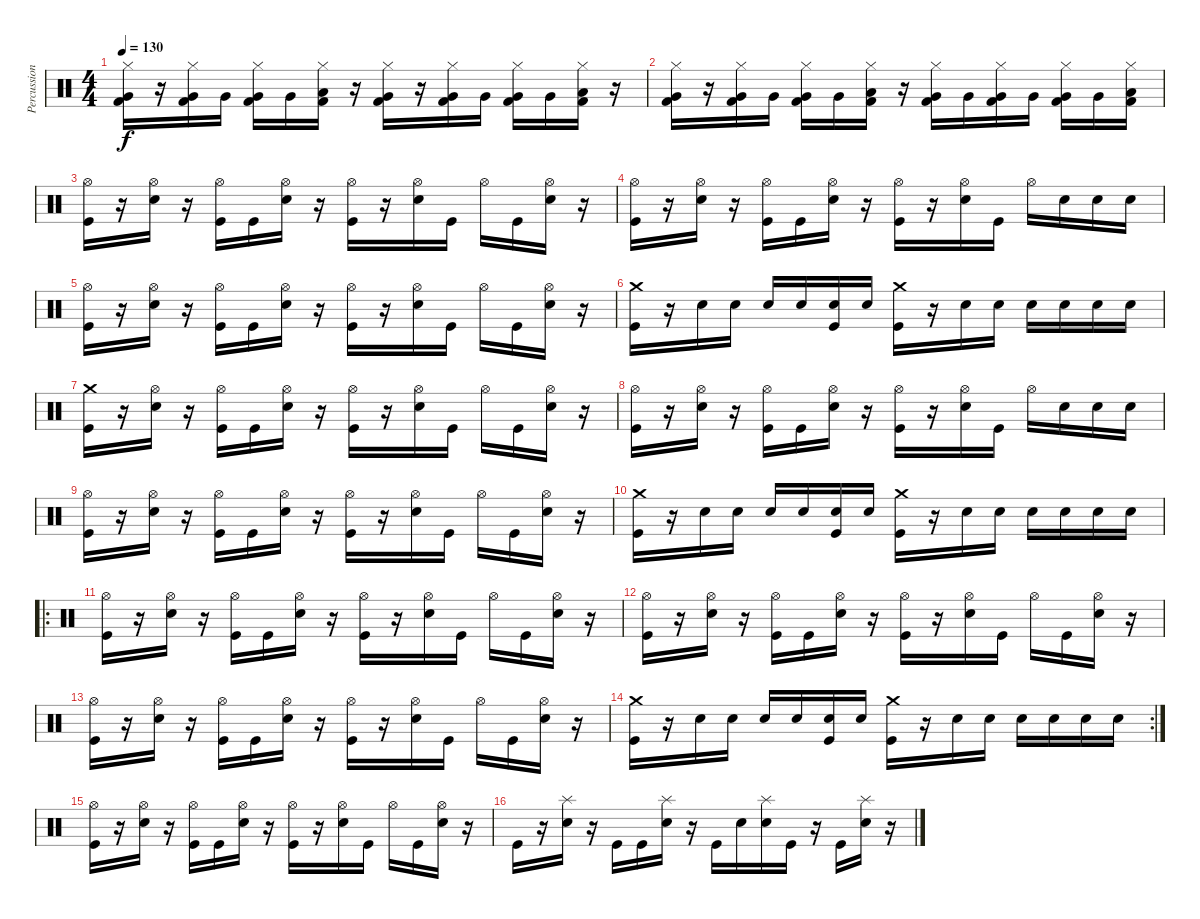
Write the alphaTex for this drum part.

\track ("Percussion" "Percussion") {instrument percussion}
\staff {score}
\articulation defaults
\ts (4 4)
\tempo 130
\clef neutral
\ks c
("Hi-Hat (closed)" "Very Low Tom (hit)" "Kick (hit) 2").16{dy f} r.16 ("Hi-Hat (closed)" "Very Low Tom (hit)" "Kick (hit) 2").16 "Very Low Tom (hit)".16 ("Hi-Hat (closed)" "Very Low Tom (hit)" "Kick (hit) 2").16 "Very Low Tom (hit)".16 ("Hi-Hat (closed)" "Low Floor Tom (hit)" "Kick (hit) 2").16 r.16 ("Hi-Hat (closed)" "Very Low Tom (hit)" "Kick (hit) 2").16 r.16 ("Hi-Hat (closed)" "Very Low Tom (hit)" "Kick (hit) 2").16 "Very Low Tom (hit)".16 ("Hi-Hat (closed)" "Very Low Tom (hit)" "Kick (hit) 2").16 "Very Low Tom (hit)".16 ("Hi-Hat (closed)" "Low Floor Tom (hit)" "Kick (hit) 2").16 r.16 |
("Hi-Hat (closed)" "Very Low Tom (hit)" "Kick (hit) 2").16 r.16 ("Hi-Hat (closed)" "Very Low Tom (hit)" "Kick (hit) 2").16 "Very Low Tom (hit)".16 ("Hi-Hat (closed)" "Very Low Tom (hit)" "Kick (hit) 2").16 "Very Low Tom (hit)".16 ("Hi-Hat (closed)" "Low Floor Tom (hit)" "Kick (hit) 2").16 r.16 ("Hi-Hat (closed)" "Very Low Tom (hit)" "Kick (hit) 2").16 "Very Low Tom (hit)".16 ("Hi-Hat (closed)" "Very Low Tom (hit)" "Kick (hit) 2").16 "Very Low Tom (hit)".16 ("Hi-Hat (closed)" "Very Low Tom (hit)" "Kick (hit) 2").16 "Very Low Tom (hit)".16 ("Hi-Hat (closed)" "Low Floor Tom (hit)" "Kick (hit) 2").16 |
("Hi-Hat (open)" "Kick (hit)").16 r.16 ("Hi-Hat (open)" "Electric Snare (hit)").16 r.16 ("Hi-Hat (open)" "Kick (hit)").16 "Kick (hit)".16 ("Hi-Hat (open)" "Electric Snare (hit)").16 r.16 ("Hi-Hat (open)" "Kick (hit)").16 r.16 ("Hi-Hat (open)" "Electric Snare (hit)").16 "Kick (hit)".16 "Hi-Hat (open)".16 "Kick (hit)".16 ("Hi-Hat (open)" "Electric Snare (hit)").16 r.16 |
("Hi-Hat (open)" "Kick (hit)").16 r.16 ("Hi-Hat (open)" "Electric Snare (hit)").16 r.16 ("Hi-Hat (open)" "Kick (hit)").16 "Kick (hit)".16 ("Hi-Hat (open)" "Electric Snare (hit)").16 r.16 ("Hi-Hat (open)" "Kick (hit)").16 r.16 ("Hi-Hat (open)" "Electric Snare (hit)").16 "Kick (hit)".16 "Hi-Hat (open)".16 "Electric Snare (hit)".16 "Electric Snare (hit)".16 "Electric Snare (hit)".16 |
("Hi-Hat (open)" "Kick (hit)").16 r.16 ("Hi-Hat (open)" "Electric Snare (hit)").16 r.16 ("Hi-Hat (open)" "Kick (hit)").16 "Kick (hit)".16 ("Hi-Hat (open)" "Electric Snare (hit)").16 r.16 ("Hi-Hat (open)" "Kick (hit)").16 r.16 ("Hi-Hat (open)" "Electric Snare (hit)").16 "Kick (hit)".16 "Hi-Hat (open)".16 "Kick (hit)".16 ("Hi-Hat (open)" "Electric Snare (hit)").16 r.16 |
("Crash medium (hit)" "Kick (hit)").16 r.16 "Electric Snare (hit)".16 "Electric Snare (hit)".16 "Electric Snare (hit)".16 "Electric Snare (hit)".16 ("Electric Snare (hit)" "Kick (hit)").16 "Electric Snare (hit)".16 ("Crash medium (hit)" "Kick (hit)").16 r.16 "Electric Snare (hit)".16 "Electric Snare (hit)".16 "Electric Snare (hit)".16 "Electric Snare (hit)".16 "Electric Snare (hit)".16 "Electric Snare (hit)".16 |
("Crash medium (hit)" "Kick (hit)").16 r.16 ("Hi-Hat (open)" "Electric Snare (hit)").16 r.16 ("Hi-Hat (open)" "Kick (hit)").16 "Kick (hit)".16 ("Hi-Hat (open)" "Electric Snare (hit)").16 r.16 ("Hi-Hat (open)" "Kick (hit)").16 r.16 ("Hi-Hat (open)" "Electric Snare (hit)").16 "Kick (hit)".16 "Hi-Hat (open)".16 "Kick (hit)".16 ("Hi-Hat (open)" "Electric Snare (hit)").16 r.16 |
("Hi-Hat (open)" "Kick (hit)").16 r.16 ("Hi-Hat (open)" "Electric Snare (hit)").16 r.16 ("Hi-Hat (open)" "Kick (hit)").16 "Kick (hit)".16 ("Hi-Hat (open)" "Electric Snare (hit)").16 r.16 ("Hi-Hat (open)" "Kick (hit)").16 r.16 ("Hi-Hat (open)" "Electric Snare (hit)").16 "Kick (hit)".16 "Hi-Hat (open)".16 "Electric Snare (hit)".16 "Electric Snare (hit)".16 "Electric Snare (hit)".16 |
("Hi-Hat (open)" "Kick (hit)").16 r.16 ("Hi-Hat (open)" "Electric Snare (hit)").16 r.16 ("Hi-Hat (open)" "Kick (hit)").16 "Kick (hit)".16 ("Hi-Hat (open)" "Electric Snare (hit)").16 r.16 ("Hi-Hat (open)" "Kick (hit)").16 r.16 ("Hi-Hat (open)" "Electric Snare (hit)").16 "Kick (hit)".16 "Hi-Hat (open)".16 "Kick (hit)".16 ("Hi-Hat (open)" "Electric Snare (hit)").16 r.16 |
("Crash medium (hit)" "Kick (hit)").16 r.16 "Electric Snare (hit)".16 "Electric Snare (hit)".16 "Electric Snare (hit)".16 "Electric Snare (hit)".16 ("Electric Snare (hit)" "Kick (hit)").16 "Electric Snare (hit)".16 ("Crash medium (hit)" "Kick (hit)").16 r.16 "Electric Snare (hit)".16 "Electric Snare (hit)".16 "Electric Snare (hit)".16 "Electric Snare (hit)".16 "Electric Snare (hit)".16 "Electric Snare (hit)".16 |
\ro
("Hi-Hat (open)" "Kick (hit)").16 r.16 ("Hi-Hat (open)" "Electric Snare (hit)").16 r.16 ("Hi-Hat (open)" "Kick (hit)").16 "Kick (hit)".16 ("Hi-Hat (open)" "Electric Snare (hit)").16 r.16 ("Hi-Hat (open)" "Kick (hit)").16 r.16 ("Hi-Hat (open)" "Electric Snare (hit)").16 "Kick (hit)".16 "Hi-Hat (open)".16 "Kick (hit)".16 ("Hi-Hat (open)" "Electric Snare (hit)").16 r.16 |
("Hi-Hat (open)" "Kick (hit)").16 r.16 ("Hi-Hat (open)" "Electric Snare (hit)").16 r.16 ("Hi-Hat (open)" "Kick (hit)").16 "Kick (hit)".16 ("Hi-Hat (open)" "Electric Snare (hit)").16 r.16 ("Hi-Hat (open)" "Kick (hit)").16 r.16 ("Hi-Hat (open)" "Electric Snare (hit)").16 "Kick (hit)".16 "Hi-Hat (open)".16 "Kick (hit)".16 ("Hi-Hat (open)" "Electric Snare (hit)").16 r.16 |
("Hi-Hat (open)" "Kick (hit)").16 r.16 ("Hi-Hat (open)" "Electric Snare (hit)").16 r.16 ("Hi-Hat (open)" "Kick (hit)").16 "Kick (hit)".16 ("Hi-Hat (open)" "Electric Snare (hit)").16 r.16 ("Hi-Hat (open)" "Kick (hit)").16 r.16 ("Hi-Hat (open)" "Electric Snare (hit)").16 "Kick (hit)".16 "Hi-Hat (open)".16 "Kick (hit)".16 ("Hi-Hat (open)" "Electric Snare (hit)").16 r.16 |
\rc 2
("Crash medium (hit)" "Kick (hit)").16 r.16 "Electric Snare (hit)".16 "Electric Snare (hit)".16 "Electric Snare (hit)".16 "Electric Snare (hit)".16 ("Electric Snare (hit)" "Kick (hit)").16 "Electric Snare (hit)".16 ("Crash medium (hit)" "Kick (hit)").16 r.16 "Electric Snare (hit)".16 "Electric Snare (hit)".16 "Electric Snare (hit)".16 "Electric Snare (hit)".16 "Electric Snare (hit)".16 "Electric Snare (hit)".16 |
("Hi-Hat (open)" "Kick (hit)").16 r.16 ("Hi-Hat (open)" "Electric Snare (hit)").16 r.16 ("Hi-Hat (open)" "Kick (hit)").16 "Kick (hit)".16 ("Hi-Hat (open)" "Electric Snare (hit)").16 r.16 ("Hi-Hat (open)" "Kick (hit)").16 r.16 ("Hi-Hat (open)" "Electric Snare (hit)").16 "Kick (hit)".16 "Hi-Hat (open)".16 "Kick (hit)".16 ("Hi-Hat (open)" "Electric Snare (hit)").16 r.16 |
"Kick (hit)".16 r.16 ("Splash (hit)" "Electric Snare (hit)").16 r.16 "Kick (hit)".16 "Kick (hit)".16 ("Splash (hit)" "Electric Snare (hit)").16 r.16 "Kick (hit)".16 "Snare (hit)".16 ("Splash (hit)" "Electric Snare (hit)").16 "Kick (hit)".16 r.16 "Kick (hit)".16 ("Splash (hit)" "Electric Snare (hit)").16 r.16
